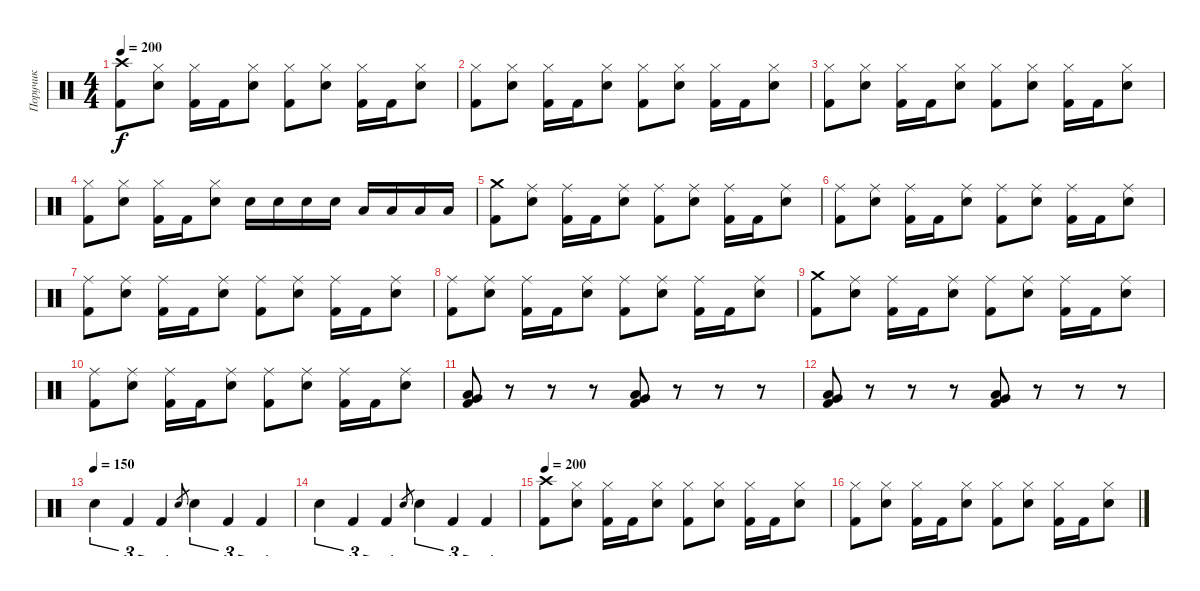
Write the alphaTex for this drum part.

\track ("Поручик" "Поручик") {instrument percussion}
\staff {score}
\articulation defaults
\ts (4 4)
\tempo 200
\clef neutral
\ks c
("Crash high (hit)" "Kick (hit) 2").8{dy f} ("Hi-Hat (closed)" "Electric Snare (hit)").8 ("Hi-Hat (closed)" "Kick (hit) 2").16 "Kick (hit) 2".16 ("Hi-Hat (closed)" "Electric Snare (hit)").8 ("Hi-Hat (closed)" "Kick (hit) 2").8 ("Hi-Hat (closed)" "Electric Snare (hit)").8 ("Hi-Hat (closed)" "Kick (hit) 2").16 "Kick (hit) 2".16 ("Hi-Hat (closed)" "Electric Snare (hit)").8 |
("Hi-Hat (closed)" "Kick (hit) 2").8 ("Hi-Hat (closed)" "Electric Snare (hit)").8 ("Hi-Hat (closed)" "Kick (hit) 2").16 "Kick (hit) 2".16 ("Hi-Hat (closed)" "Electric Snare (hit)").8 ("Hi-Hat (closed)" "Kick (hit) 2").8 ("Hi-Hat (closed)" "Electric Snare (hit)").8 ("Hi-Hat (closed)" "Kick (hit) 2").16 "Kick (hit) 2".16 ("Hi-Hat (closed)" "Electric Snare (hit)").8 |
("Hi-Hat (closed)" "Kick (hit) 2").8 ("Hi-Hat (closed)" "Electric Snare (hit)").8 ("Hi-Hat (closed)" "Kick (hit) 2").16 "Kick (hit) 2".16 ("Hi-Hat (closed)" "Electric Snare (hit)").8 ("Hi-Hat (closed)" "Kick (hit) 2").8 ("Hi-Hat (closed)" "Electric Snare (hit)").8 ("Hi-Hat (closed)" "Kick (hit) 2").16 "Kick (hit) 2".16 ("Hi-Hat (closed)" "Electric Snare (hit)").8 |
("Hi-Hat (closed)" "Kick (hit) 2").8 ("Hi-Hat (closed)" "Electric Snare (hit)").8 ("Hi-Hat (closed)" "Kick (hit) 2").16 "Kick (hit) 2".16 ("Hi-Hat (closed)" "Electric Snare (hit)").8 "Electric Snare (hit)".16 "Electric Snare (hit)".16 "Electric Snare (hit)".16 "Electric Snare (hit)".16 "Low Floor Tom (hit)".16 "Low Floor Tom (hit)".16 "Low Floor Tom (hit)".16 "Low Floor Tom (hit)".16 |
("Crash medium (hit)" "Kick (hit) 2").8 ("Ride (middle)" "Electric Snare (hit)").8 ("Ride (middle)" "Kick (hit) 2").16 "Kick (hit) 2".16 ("Ride (middle)" "Electric Snare (hit)").8 ("Ride (middle)" "Kick (hit) 2").8 ("Ride (middle)" "Electric Snare (hit)").8 ("Ride (middle)" "Kick (hit) 2").16 "Kick (hit) 2".16 ("Ride (middle)" "Electric Snare (hit)").8 |
("Ride (middle)" "Kick (hit) 2").8 ("Ride (middle)" "Electric Snare (hit)").8 ("Ride (middle)" "Kick (hit) 2").16 "Kick (hit) 2".16 ("Ride (middle)" "Electric Snare (hit)").8 ("Ride (middle)" "Kick (hit) 2").8 ("Ride (middle)" "Electric Snare (hit)").8 ("Ride (middle)" "Kick (hit) 2").16 "Kick (hit) 2".16 ("Ride (middle)" "Electric Snare (hit)").8 |
("Ride (middle)" "Kick (hit) 2").8 ("Ride (middle)" "Electric Snare (hit)").8 ("Ride (middle)" "Kick (hit) 2").16 "Kick (hit) 2".16 ("Ride (middle)" "Electric Snare (hit)").8 ("Ride (middle)" "Kick (hit) 2").8 ("Ride (middle)" "Electric Snare (hit)").8 ("Ride (middle)" "Kick (hit) 2").16 "Kick (hit) 2".16 ("Ride (middle)" "Electric Snare (hit)").8 |
("Ride (middle)" "Kick (hit) 2").8 ("Ride (middle)" "Electric Snare (hit)").8 ("Ride (middle)" "Kick (hit) 2").16 "Kick (hit) 2".16 ("Ride (middle)" "Electric Snare (hit)").8 ("Ride (middle)" "Kick (hit) 2").8 ("Ride (middle)" "Electric Snare (hit)").8 ("Ride (middle)" "Kick (hit) 2").16 "Kick (hit) 2".16 ("Ride (middle)" "Electric Snare (hit)").8 |
("Crash medium (hit)" "Kick (hit) 2").8 ("Ride (middle)" "Electric Snare (hit)").8 ("Ride (middle)" "Kick (hit) 2").16 "Kick (hit) 2".16 ("Ride (middle)" "Electric Snare (hit)").8 ("Ride (middle)" "Kick (hit) 2").8 ("Ride (middle)" "Electric Snare (hit)").8 ("Ride (middle)" "Kick (hit) 2").16 "Kick (hit) 2".16 ("Ride (middle)" "Electric Snare (hit)").8 |
("Ride (middle)" "Kick (hit) 2").8 ("Ride (middle)" "Electric Snare (hit)").8 ("Ride (middle)" "Kick (hit) 2").16 "Kick (hit) 2".16 ("Ride (middle)" "Electric Snare (hit)").8 ("Ride (middle)" "Kick (hit) 2").8 ("Ride (middle)" "Electric Snare (hit)").8 ("Ride (middle)" "Kick (hit) 2").16 "Kick (hit) 2".16 ("Ride (middle)" "Electric Snare (hit)").8 |
("Very Low Tom (hit)" "Low Floor Tom (hit)" "Kick (hit) 2").8 r.8 r.8 r.8 ("Very Low Tom (hit)" "Low Floor Tom (hit)" "Kick (hit) 2").8 r.8 r.8 r.8 |
("Very Low Tom (hit)" "Low Floor Tom (hit)" "Kick (hit) 2").8 r.8 r.8 r.8 ("Very Low Tom (hit)" "Low Floor Tom (hit)" "Kick (hit) 2").8 r.8 r.8 r.8 |
\tempo (150)
"Electric Snare (hit)".4{tu (3 2)} "Kick (hit) 2".4{tu (3 2)} "Kick (hit) 2".4{tu (3 2)} "Electric Snare (hit)".8{gr} "Electric Snare (hit)".4{tu (3 2)} "Kick (hit) 2".4{tu (3 2)} "Kick (hit) 2".4{tu (3 2)} |
"Electric Snare (hit)".4{tu (3 2)} "Kick (hit) 2".4{tu (3 2)} "Kick (hit) 2".4{tu (3 2)} "Electric Snare (hit)".8{gr} "Electric Snare (hit)".4{tu (3 2)} "Kick (hit) 2".4{tu (3 2)} "Kick (hit) 2".4{tu (3 2)} |
\tempo 200
("Crash high (hit)" "Kick (hit) 2").8 ("Hi-Hat (closed)" "Electric Snare (hit)").8 ("Hi-Hat (closed)" "Kick (hit) 2").16 "Kick (hit) 2".16 ("Hi-Hat (closed)" "Electric Snare (hit)").8 ("Hi-Hat (closed)" "Kick (hit) 2").8 ("Hi-Hat (closed)" "Electric Snare (hit)").8 ("Hi-Hat (closed)" "Kick (hit) 2").16 "Kick (hit) 2".16 ("Hi-Hat (closed)" "Electric Snare (hit)").8 |
("Hi-Hat (closed)" "Kick (hit) 2").8 ("Hi-Hat (closed)" "Electric Snare (hit)").8 ("Hi-Hat (closed)" "Kick (hit) 2").16 "Kick (hit) 2".16 ("Hi-Hat (closed)" "Electric Snare (hit)").8 ("Hi-Hat (closed)" "Kick (hit) 2").8 ("Hi-Hat (closed)" "Electric Snare (hit)").8 ("Hi-Hat (closed)" "Kick (hit) 2").16 "Kick (hit) 2".16 ("Hi-Hat (closed)" "Electric Snare (hit)").8
